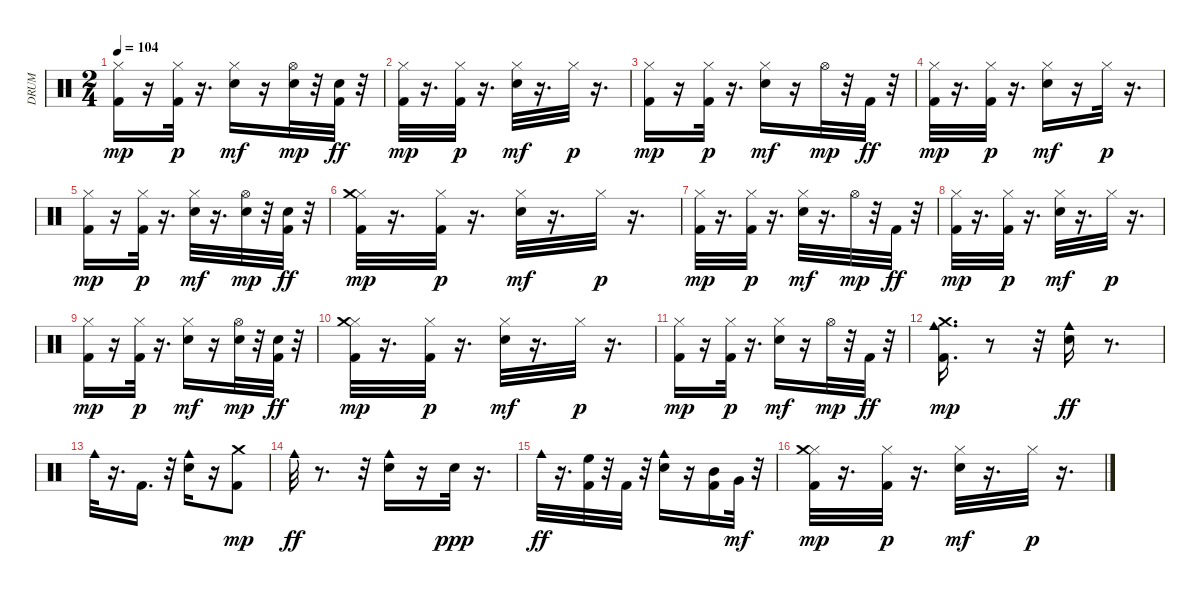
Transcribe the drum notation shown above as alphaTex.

\track ("DRUM    " "DRUM    ") {instrument percussion}
\staff {score}
\articulation defaults
\ts (2 4)
\tempo 104
\clef neutral
\ks c
("Kick (hit) 2" "Hi-Hat (closed)").16{dy mp} r.16 ("Kick (hit) 2" "Hi-Hat (closed)").32{dy p} r.16{d} ("Snare (hit) 2" "Hi-Hat (closed)").16{dy mf} r.16 ("Hi-Hat (open)" "Snare (hit) 2").32{dy mp} r.32 ("Kick (hit) 2" "Snare (hit) 2").32{dy ff} r.32 |
("Kick (hit) 2" "Hi-Hat (closed)").32{dy mp} r.16{d} ("Kick (hit) 2" "Hi-Hat (closed)").32{dy p} r.16{d} ("Snare (hit) 2" "Hi-Hat (closed)").32{dy mf} r.16{d} "Hi-Hat (closed)".32{dy p} r.16{d} |
("Kick (hit) 2" "Hi-Hat (closed)").16{dy mp} r.16 ("Kick (hit) 2" "Hi-Hat (closed)").32{dy p} r.16{d} ("Snare (hit) 2" "Hi-Hat (closed)").16{dy mf} r.16 "Hi-Hat (open)".32{dy mp} r.32 "Kick (hit) 2".32{dy ff} r.32 |
("Kick (hit) 2" "Hi-Hat (closed)").32{dy mp} r.16{d} ("Kick (hit) 2" "Hi-Hat (closed)").32{dy p} r.16{d} ("Snare (hit) 2" "Hi-Hat (closed)").16{dy mf} r.16 "Hi-Hat (closed)".32{dy p} r.16{d} |
("Kick (hit) 2" "Hi-Hat (closed)").16{dy mp} r.16 ("Kick (hit) 2" "Hi-Hat (closed)").32{dy p} r.16{d} ("Snare (hit) 2" "Hi-Hat (closed)").32{dy mf} r.16{d} ("Snare (hit) 2" "Hi-Hat (open)").32{dy mp} r.32 ("Kick (hit) 2" "Snare (hit) 2").32{dy ff} r.32 |
("Kick (hit) 2" "Hi-Hat (closed)" "Crash medium (hit)").32{dy mp} r.16{d} ("Kick (hit) 2" "Hi-Hat (closed)").32{dy p} r.16{d} ("Snare (hit) 2" "Hi-Hat (closed)").32{dy mf} r.16{d} "Hi-Hat (closed)".32{dy p} r.16{d} |
("Kick (hit) 2" "Hi-Hat (closed)").32{dy mp} r.16{d} ("Kick (hit) 2" "Hi-Hat (closed)").32{dy p} r.16{d} ("Snare (hit) 2" "Hi-Hat (closed)").32{dy mf} r.16{d} "Hi-Hat (open)".32{dy mp} r.32 "Kick (hit) 2".32{dy ff} r.32 |
("Kick (hit) 2" "Hi-Hat (closed)").32{dy mp} r.16{d} ("Kick (hit) 2" "Hi-Hat (closed)").32{dy p} r.16{d} ("Snare (hit) 2" "Hi-Hat (closed)").32{dy mf} r.16{d} "Hi-Hat (closed)".32{dy p} r.16{d} |
("Kick (hit) 2" "Hi-Hat (closed)").16{dy mp} r.16 ("Kick (hit) 2" "Hi-Hat (closed)").32{dy p} r.16{d} ("Snare (hit) 2" "Hi-Hat (closed)").16{dy mf} r.16 ("Snare (hit) 2" "Hi-Hat (open)").32{dy mp} r.32 ("Kick (hit) 2" "Snare (hit) 2").32{dy ff} r.32 |
("Kick (hit) 2" "Hi-Hat (closed)" "Crash medium (hit)").32{dy mp} r.16{d} ("Kick (hit) 2" "Hi-Hat (closed)").32{dy p} r.16{d} ("Snare (hit) 2" "Hi-Hat (closed)").32{dy mf} r.16{d} "Hi-Hat (closed)".32{dy p} r.16{d} |
("Kick (hit) 2" "Hi-Hat (closed)").16{dy mp} r.16 ("Kick (hit) 2" "Hi-Hat (closed)").32{dy p} r.16{d} ("Snare (hit) 2" "Hi-Hat (closed)").16{dy mf} r.16 "Hi-Hat (open)".32{dy mp} r.32 "Kick (hit) 2".32{dy ff} r.32 |
("Kick (hit) 2" "Cowbell medium (hit)" "Crash medium (hit)").16{d dy mp} r.8 r.32 ("Snare (hit) 2" "Cowbell medium (hit)").16{dy ff} r.8{d} |
"Cowbell medium (hit)".32 r.16{d} "Kick (hit) 2".16{d} r.32 ("Snare (hit) 2" "Cowbell medium (hit)").16 r.16 ("Kick (hit) 2" "Crash medium (hit)").8{dy mp} |
"Cowbell medium (hit)".32{dy ff} r.8{d} r.32 ("Snare (hit) 2" "Cowbell medium (hit)").16 r.16 "Snare (hit) 2".32{dy ppp} r.16{d} |
"Cowbell medium (hit)".32{dy ff} r.16{d} ("Kick (hit) 2" "High Floor Tom (hit)").32 r.32 "Kick (hit) 2".32 r.32 ("Snare (hit) 2" "Cowbell medium (hit)").16 r.16 ("Kick (hit) 2" "Mid Tom (hit)").16 "Very Low Tom (hit)".32{dy mf} r.32 |
("Kick (hit) 2" "Hi-Hat (closed)" "Crash medium (hit)").32{dy mp} r.16{d} ("Kick (hit) 2" "Hi-Hat (closed)").32{dy p} r.16{d} ("Snare (hit) 2" "Hi-Hat (closed)").32{dy mf} r.16{d} "Hi-Hat (closed)".32{dy p} r.16{d}
